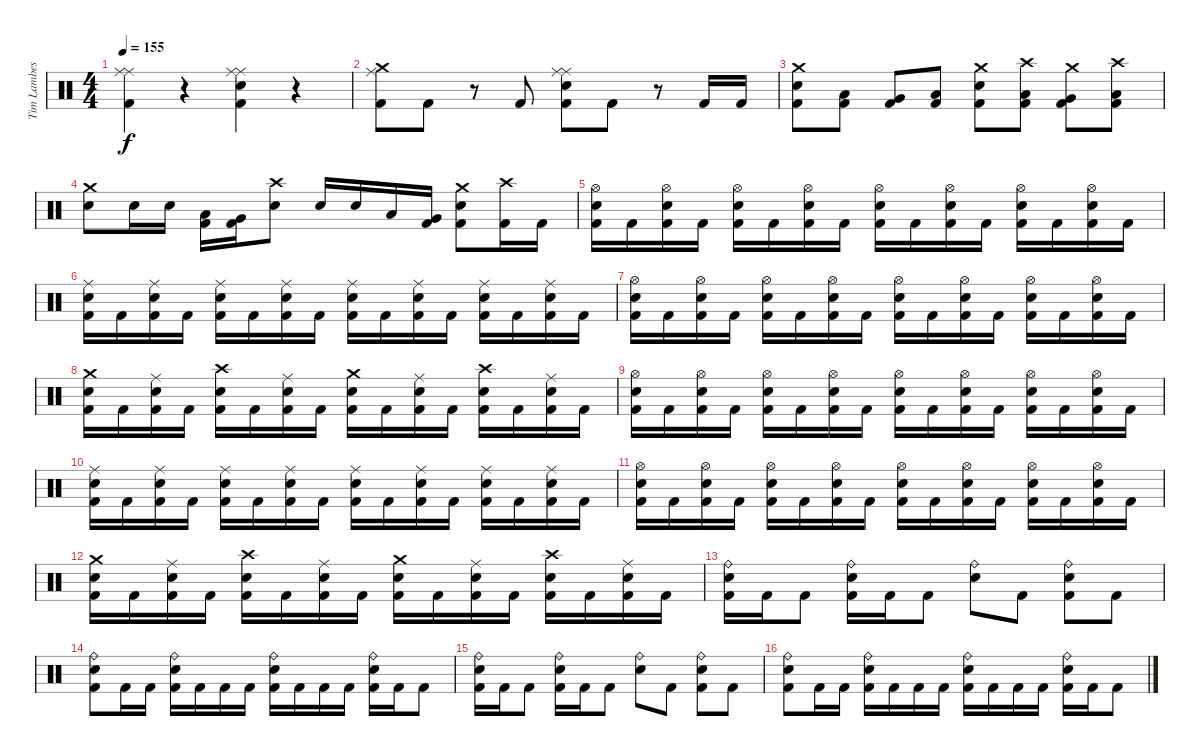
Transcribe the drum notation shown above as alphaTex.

\track ("Tim Lambesis" "Tim Lambes") {instrument percussion}
\staff {score}
\articulation defaults
\ts (4 4)
\tempo 155
\clef neutral
\ks c
("Ride (middle)" "Ride (middle)" "Kick (hit) 2").4{dy f} r.4 ("Electric Snare (hit)" "Ride (middle)" "Ride (middle)" "Kick (hit) 2").4 r.4 |
("Crash medium (hit)" "Ride (middle)" "Kick (hit) 2").8 "Kick (hit) 2".8 r.8 "Kick (hit) 2".8 ("Electric Snare (hit)" "Ride (middle)" "Ride (middle)" "Kick (hit) 2").8 "Kick (hit) 2".8 r.8 "Kick (hit) 2".16 "Kick (hit) 2".16 |
("Crash medium (hit)" "Electric Snare (hit)" "Kick (hit) 2").8 ("Low Tom (hit)" "Kick (hit) 2").8 ("Very Low Tom (hit)" "Kick (hit) 2").8 ("Low Floor Tom (hit)" "Kick (hit) 2").8 ("Crash medium (hit)" "Electric Snare (hit)" "Kick (hit) 2").8 ("Crash high (hit)" "Low Tom (hit)" "Kick (hit) 2").8 ("Crash medium (hit)" "Very Low Tom (hit)" "Kick (hit) 2").8 ("Crash high (hit)" "Low Floor Tom (hit)" "Kick (hit) 2").8 |
("Crash medium (hit)" "Electric Snare (hit)").8 "Electric Snare (hit)".16 "Electric Snare (hit)".16 ("Low Tom (hit)" "Kick (hit) 2").16 ("Very Low Tom (hit)" "Kick (hit) 2").16 ("Crash high (hit)" "Electric Snare (hit)").8 "Electric Snare (hit)".16 "Electric Snare (hit)".16 "Low Tom (hit)".16 ("Very Low Tom (hit)" "Kick (hit) 2").16 ("Crash medium (hit)" "Electric Snare (hit)" "Kick (hit) 2").8 ("Crash high (hit)" "Kick (hit) 2").16 "Kick (hit) 2".16 |
("Hi-Hat (open)" "Electric Snare (hit)" "Kick (hit) 2").16 "Kick (hit) 2".16 ("Hi-Hat (open)" "Electric Snare (hit)" "Kick (hit) 2").16 "Kick (hit) 2".16 ("Hi-Hat (open)" "Electric Snare (hit)" "Kick (hit) 2").16 "Kick (hit) 2".16 ("Hi-Hat (open)" "Electric Snare (hit)" "Kick (hit) 2").16 "Kick (hit) 2".16 ("Hi-Hat (open)" "Electric Snare (hit)" "Kick (hit) 2").16 "Kick (hit) 2".16 ("Hi-Hat (open)" "Electric Snare (hit)" "Kick (hit) 2").16 "Kick (hit) 2".16 ("Hi-Hat (open)" "Electric Snare (hit)" "Kick (hit) 2").16 "Kick (hit) 2".16 ("Hi-Hat (open)" "Electric Snare (hit)" "Kick (hit) 2").16 "Kick (hit) 2".16 |
("Ride (middle)" "Electric Snare (hit)" "Kick (hit) 2").16 "Kick (hit) 2".16 ("Ride (middle)" "Electric Snare (hit)" "Kick (hit) 2").16 "Kick (hit) 2".16 ("Ride (middle)" "Electric Snare (hit)" "Kick (hit) 2").16 "Kick (hit) 2".16 ("Ride (middle)" "Electric Snare (hit)" "Kick (hit) 2").16 "Kick (hit) 2".16 ("Ride (middle)" "Electric Snare (hit)" "Kick (hit) 2").16 "Kick (hit) 2".16 ("Ride (middle)" "Electric Snare (hit)" "Kick (hit) 2").16 "Kick (hit) 2".16 ("Ride (middle)" "Electric Snare (hit)" "Kick (hit) 2").16 "Kick (hit) 2".16 ("Ride (middle)" "Electric Snare (hit)" "Kick (hit) 2").16 "Kick (hit) 2".16 |
("Hi-Hat (open)" "Electric Snare (hit)" "Kick (hit) 2").16 "Kick (hit) 2".16 ("Hi-Hat (open)" "Electric Snare (hit)" "Kick (hit) 2").16 "Kick (hit) 2".16 ("Hi-Hat (open)" "Electric Snare (hit)" "Kick (hit) 2").16 "Kick (hit) 2".16 ("Hi-Hat (open)" "Electric Snare (hit)" "Kick (hit) 2").16 "Kick (hit) 2".16 ("Hi-Hat (open)" "Electric Snare (hit)" "Kick (hit) 2").16 "Kick (hit) 2".16 ("Hi-Hat (open)" "Electric Snare (hit)" "Kick (hit) 2").16 "Kick (hit) 2".16 ("Hi-Hat (open)" "Electric Snare (hit)" "Kick (hit) 2").16 "Kick (hit) 2".16 ("Hi-Hat (open)" "Electric Snare (hit)" "Kick (hit) 2").16 "Kick (hit) 2".16 |
("Crash medium (hit)" "Electric Snare (hit)" "Kick (hit) 2").16 "Kick (hit) 2".16 ("Ride (middle)" "Electric Snare (hit)" "Kick (hit) 2").16 "Kick (hit) 2".16 ("Crash high (hit)" "Electric Snare (hit)" "Kick (hit) 2").16 "Kick (hit) 2".16 ("Ride (middle)" "Electric Snare (hit)" "Kick (hit) 2").16 "Kick (hit) 2".16 ("Crash medium (hit)" "Electric Snare (hit)" "Kick (hit) 2").16 "Kick (hit) 2".16 ("Ride (middle)" "Electric Snare (hit)" "Kick (hit) 2").16 "Kick (hit) 2".16 ("Crash high (hit)" "Electric Snare (hit)" "Kick (hit) 2").16 "Kick (hit) 2".16 ("Ride (middle)" "Electric Snare (hit)" "Kick (hit) 2").16 "Kick (hit) 2".16 |
("Hi-Hat (open)" "Electric Snare (hit)" "Kick (hit) 2").16 "Kick (hit) 2".16 ("Hi-Hat (open)" "Electric Snare (hit)" "Kick (hit) 2").16 "Kick (hit) 2".16 ("Hi-Hat (open)" "Electric Snare (hit)" "Kick (hit) 2").16 "Kick (hit) 2".16 ("Hi-Hat (open)" "Electric Snare (hit)" "Kick (hit) 2").16 "Kick (hit) 2".16 ("Hi-Hat (open)" "Electric Snare (hit)" "Kick (hit) 2").16 "Kick (hit) 2".16 ("Hi-Hat (open)" "Electric Snare (hit)" "Kick (hit) 2").16 "Kick (hit) 2".16 ("Hi-Hat (open)" "Electric Snare (hit)" "Kick (hit) 2").16 "Kick (hit) 2".16 ("Hi-Hat (open)" "Electric Snare (hit)" "Kick (hit) 2").16 "Kick (hit) 2".16 |
("Ride (middle)" "Electric Snare (hit)" "Kick (hit) 2").16 "Kick (hit) 2".16 ("Ride (middle)" "Electric Snare (hit)" "Kick (hit) 2").16 "Kick (hit) 2".16 ("Ride (middle)" "Electric Snare (hit)" "Kick (hit) 2").16 "Kick (hit) 2".16 ("Ride (middle)" "Electric Snare (hit)" "Kick (hit) 2").16 "Kick (hit) 2".16 ("Ride (middle)" "Electric Snare (hit)" "Kick (hit) 2").16 "Kick (hit) 2".16 ("Ride (middle)" "Electric Snare (hit)" "Kick (hit) 2").16 "Kick (hit) 2".16 ("Ride (middle)" "Electric Snare (hit)" "Kick (hit) 2").16 "Kick (hit) 2".16 ("Ride (middle)" "Electric Snare (hit)" "Kick (hit) 2").16 "Kick (hit) 2".16 |
("Hi-Hat (open)" "Electric Snare (hit)" "Kick (hit) 2").16 "Kick (hit) 2".16 ("Hi-Hat (open)" "Electric Snare (hit)" "Kick (hit) 2").16 "Kick (hit) 2".16 ("Hi-Hat (open)" "Electric Snare (hit)" "Kick (hit) 2").16 "Kick (hit) 2".16 ("Hi-Hat (open)" "Electric Snare (hit)" "Kick (hit) 2").16 "Kick (hit) 2".16 ("Hi-Hat (open)" "Electric Snare (hit)" "Kick (hit) 2").16 "Kick (hit) 2".16 ("Hi-Hat (open)" "Electric Snare (hit)" "Kick (hit) 2").16 "Kick (hit) 2".16 ("Hi-Hat (open)" "Electric Snare (hit)" "Kick (hit) 2").16 "Kick (hit) 2".16 ("Hi-Hat (open)" "Electric Snare (hit)" "Kick (hit) 2").16 "Kick (hit) 2".16 |
("Crash medium (hit)" "Electric Snare (hit)" "Kick (hit) 2").16 "Kick (hit) 2".16 ("Ride (middle)" "Electric Snare (hit)" "Kick (hit) 2").16 "Kick (hit) 2".16 ("Crash high (hit)" "Electric Snare (hit)" "Kick (hit) 2").16 "Kick (hit) 2".16 ("Ride (middle)" "Electric Snare (hit)" "Kick (hit) 2").16 "Kick (hit) 2".16 ("Crash medium (hit)" "Electric Snare (hit)" "Kick (hit) 2").16 "Kick (hit) 2".16 ("Ride (middle)" "Electric Snare (hit)" "Kick (hit) 2").16 "Kick (hit) 2".16 ("Crash high (hit)" "Electric Snare (hit)" "Kick (hit) 2").16 "Kick (hit) 2".16 ("Ride (middle)" "Electric Snare (hit)" "Kick (hit) 2").16 "Kick (hit) 2".16 |
("Ride (bell)" "Electric Snare (hit)" "Kick (hit) 2").16 "Kick (hit) 2".16 "Kick (hit) 2".8 ("Ride (bell)" "Electric Snare (hit)" "Kick (hit) 2").16 "Kick (hit) 2".16 "Kick (hit) 2".8 ("Ride (bell)" "Electric Snare (hit)").8 "Kick (hit) 2".8 ("Ride (bell)" "Electric Snare (hit)" "Kick (hit) 2").8 "Kick (hit) 2".8 |
("Ride (bell)" "Electric Snare (hit)" "Kick (hit) 2").8 "Kick (hit) 2".16 "Kick (hit) 2".16 ("Ride (bell)" "Electric Snare (hit)" "Kick (hit) 2").16 "Kick (hit) 2".16 "Kick (hit) 2".16 "Kick (hit) 2".16 ("Ride (bell)" "Electric Snare (hit)" "Kick (hit) 2").16 "Kick (hit) 2".16 "Kick (hit) 2".16 "Kick (hit) 2".16 ("Ride (bell)" "Electric Snare (hit)" "Kick (hit) 2").16 "Kick (hit) 2".16 "Kick (hit) 2".8 |
("Ride (bell)" "Electric Snare (hit)" "Kick (hit) 2").16 "Kick (hit) 2".16 "Kick (hit) 2".8 ("Ride (bell)" "Electric Snare (hit)" "Kick (hit) 2").16 "Kick (hit) 2".16 "Kick (hit) 2".8 ("Ride (bell)" "Electric Snare (hit)").8 "Kick (hit) 2".8 ("Ride (bell)" "Electric Snare (hit)" "Kick (hit) 2").8 "Kick (hit) 2".8 |
("Ride (bell)" "Electric Snare (hit)" "Kick (hit) 2").8 "Kick (hit) 2".16 "Kick (hit) 2".16 ("Ride (bell)" "Electric Snare (hit)" "Kick (hit) 2").16 "Kick (hit) 2".16 "Kick (hit) 2".16 "Kick (hit) 2".16 ("Ride (bell)" "Electric Snare (hit)" "Kick (hit) 2").16 "Kick (hit) 2".16 "Kick (hit) 2".16 "Kick (hit) 2".16 ("Ride (bell)" "Electric Snare (hit)" "Kick (hit) 2").16 "Kick (hit) 2".16 "Kick (hit) 2".8
